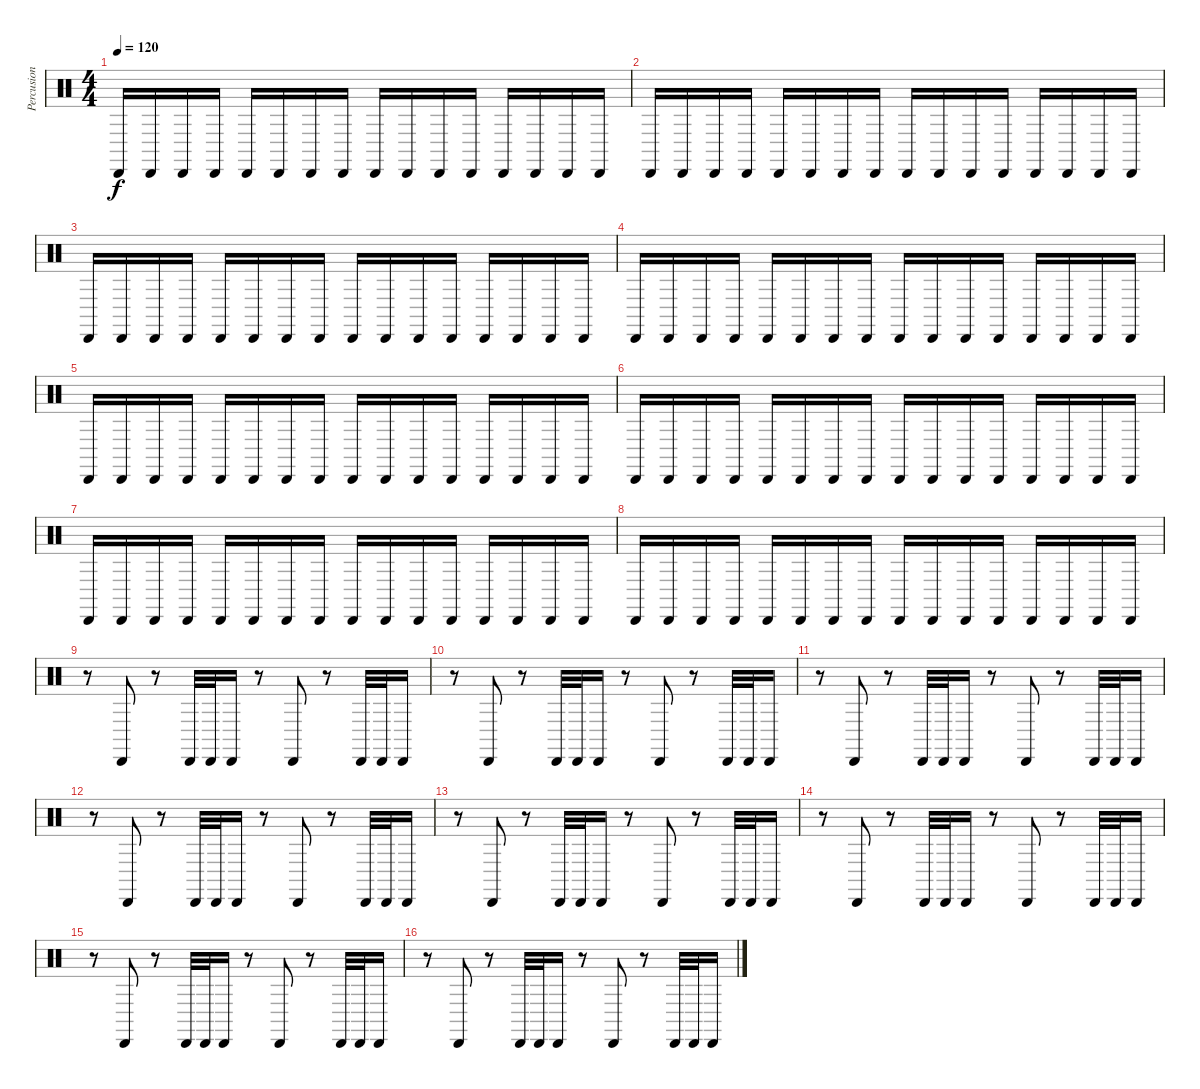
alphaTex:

\track ("Percusion" "Percusion") {instrument percussion}
\staff {score}
\articulation defaults
\ts (4 4)
\tempo 120
\clef neutral
\ks c "Cabasa (hit)".16{dy f} "Cabasa (hit)".16 "Cabasa (hit)".16 "Cabasa (hit)".16 "Cabasa (hit)".16 "Cabasa (hit)".16 "Cabasa (hit)".16 "Cabasa (hit)".16 "Cabasa (hit)".16 "Cabasa (hit)".16 "Cabasa (hit)".16 "Cabasa (hit)".16 "Cabasa (hit)".16 "Cabasa (hit)".16 "Cabasa (hit)".16 "Cabasa (hit)".16
|
"Cabasa (hit)".16 "Cabasa (hit)".16 "Cabasa (hit)".16 "Cabasa (hit)".16 "Cabasa (hit)".16 "Cabasa (hit)".16 "Cabasa (hit)".16 "Cabasa (hit)".16 "Cabasa (hit)".16 "Cabasa (hit)".16 "Cabasa (hit)".16 "Cabasa (hit)".16 "Cabasa (hit)".16 "Cabasa (hit)".16 "Cabasa (hit)".16 "Cabasa (hit)".16 |
"Cabasa (hit)".16 "Cabasa (hit)".16 "Cabasa (hit)".16 "Cabasa (hit)".16 "Cabasa (hit)".16 "Cabasa (hit)".16 "Cabasa (hit)".16 "Cabasa (hit)".16 "Cabasa (hit)".16 "Cabasa (hit)".16 "Cabasa (hit)".16 "Cabasa (hit)".16 "Cabasa (hit)".16 "Cabasa (hit)".16 "Cabasa (hit)".16 "Cabasa (hit)".16 |
"Cabasa (hit)".16 "Cabasa (hit)".16 "Cabasa (hit)".16 "Cabasa (hit)".16 "Cabasa (hit)".16 "Cabasa (hit)".16 "Cabasa (hit)".16 "Cabasa (hit)".16 "Cabasa (hit)".16 "Cabasa (hit)".16 "Cabasa (hit)".16 "Cabasa (hit)".16 "Cabasa (hit)".16 "Cabasa (hit)".16 "Cabasa (hit)".16 "Cabasa (hit)".16 |
"Cabasa (hit)".16 "Cabasa (hit)".16 "Cabasa (hit)".16 "Cabasa (hit)".16 "Cabasa (hit)".16 "Cabasa (hit)".16 "Cabasa (hit)".16 "Cabasa (hit)".16 "Cabasa (hit)".16 "Cabasa (hit)".16 "Cabasa (hit)".16 "Cabasa (hit)".16 "Cabasa (hit)".16 "Cabasa (hit)".16 "Cabasa (hit)".16 "Cabasa (hit)".16 |
"Cabasa (hit)".16 "Cabasa (hit)".16 "Cabasa (hit)".16 "Cabasa (hit)".16 "Cabasa (hit)".16 "Cabasa (hit)".16 "Cabasa (hit)".16 "Cabasa (hit)".16 "Cabasa (hit)".16 "Cabasa (hit)".16 "Cabasa (hit)".16 "Cabasa (hit)".16 "Cabasa (hit)".16 "Cabasa (hit)".16 "Cabasa (hit)".16 "Cabasa (hit)".16 |
"Cabasa (hit)".16 "Cabasa (hit)".16 "Cabasa (hit)".16 "Cabasa (hit)".16 "Cabasa (hit)".16 "Cabasa (hit)".16 "Cabasa (hit)".16 "Cabasa (hit)".16 "Cabasa (hit)".16 "Cabasa (hit)".16 "Cabasa (hit)".16 "Cabasa (hit)".16 "Cabasa (hit)".16 "Cabasa (hit)".16 "Cabasa (hit)".16 "Cabasa (hit)".16 |
"Cabasa (hit)".16 "Cabasa (hit)".16 "Cabasa (hit)".16 "Cabasa (hit)".16 "Cabasa (hit)".16 "Cabasa (hit)".16 "Cabasa (hit)".16 "Cabasa (hit)".16 "Cabasa (hit)".16 "Cabasa (hit)".16 "Cabasa (hit)".16 "Cabasa (hit)".16 "Cabasa (hit)".16 "Cabasa (hit)".16 "Cabasa (hit)".16 "Cabasa (hit)".16 |
r.8 "Cabasa (hit)".8 r.8 "Cabasa (hit)".32 "Cabasa (hit)".32 "Cabasa (hit)".16 r.8 "Cabasa (hit)".8 r.8 "Cabasa (hit)".32 "Cabasa (hit)".32 "Cabasa (hit)".16 |
r.8 "Cabasa (hit)".8 r.8 "Cabasa (hit)".32 "Cabasa (hit)".32 "Cabasa (hit)".16 r.8 "Cabasa (hit)".8 r.8 "Cabasa (hit)".32 "Cabasa (hit)".32 "Cabasa (hit)".16 |
r.8 "Cabasa (hit)".8 r.8 "Cabasa (hit)".32 "Cabasa (hit)".32 "Cabasa (hit)".16 r.8 "Cabasa (hit)".8 r.8 "Cabasa (hit)".32 "Cabasa (hit)".32 "Cabasa (hit)".16 |
r.8 "Cabasa (hit)".8 r.8 "Cabasa (hit)".32 "Cabasa (hit)".32 "Cabasa (hit)".16 r.8 "Cabasa (hit)".8 r.8 "Cabasa (hit)".32 "Cabasa (hit)".32 "Cabasa (hit)".16 |
r.8 "Cabasa (hit)".8 r.8 "Cabasa (hit)".32 "Cabasa (hit)".32 "Cabasa (hit)".16 r.8 "Cabasa (hit)".8 r.8 "Cabasa (hit)".32 "Cabasa (hit)".32 "Cabasa (hit)".16 |
r.8 "Cabasa (hit)".8 r.8 "Cabasa (hit)".32 "Cabasa (hit)".32 "Cabasa (hit)".16 r.8 "Cabasa (hit)".8 r.8 "Cabasa (hit)".32 "Cabasa (hit)".32 "Cabasa (hit)".16 |
r.8 "Cabasa (hit)".8 r.8 "Cabasa (hit)".32 "Cabasa (hit)".32 "Cabasa (hit)".16 r.8 "Cabasa (hit)".8 r.8 "Cabasa (hit)".32 "Cabasa (hit)".32 "Cabasa (hit)".16 |
r.8 "Cabasa (hit)".8 r.8 "Cabasa (hit)".32 "Cabasa (hit)".32 "Cabasa (hit)".16 r.8 "Cabasa (hit)".8 r.8 "Cabasa (hit)".32 "Cabasa (hit)".32 "Cabasa (hit)".16
